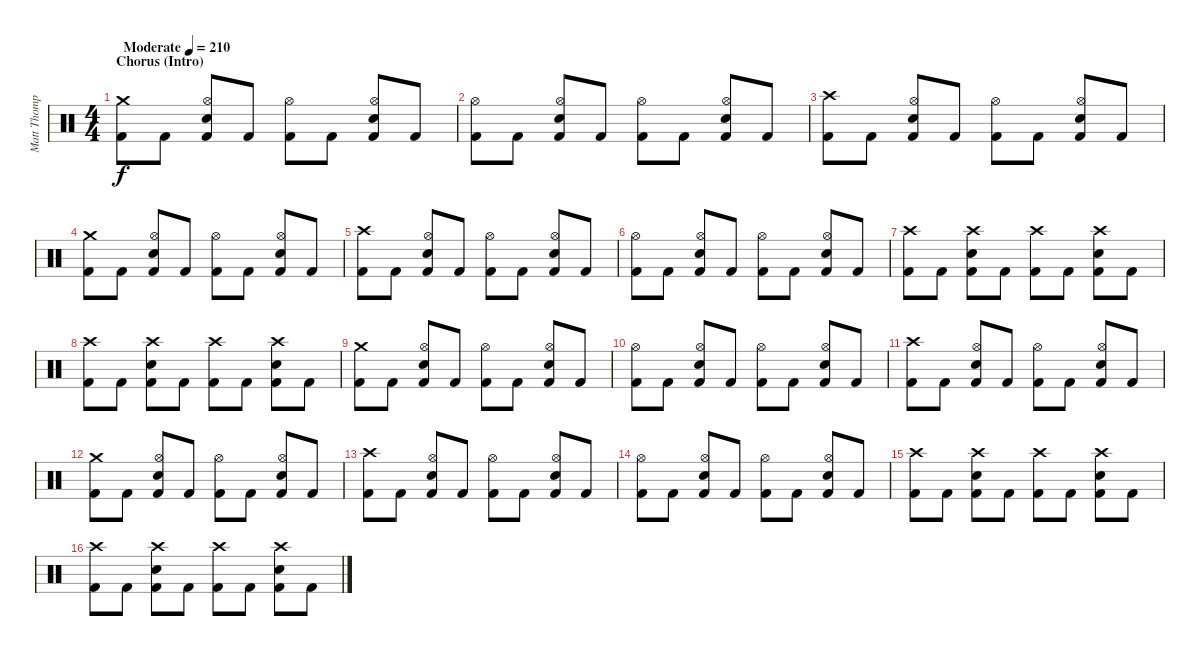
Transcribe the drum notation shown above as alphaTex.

\track ("Matt Thompson" "Matt Thomp") {instrument percussion}
\staff {score}
\articulation defaults
\ts (4 4)
\section ("" "Chorus (Intro)")
\tempo (210 "Moderate")
\clef neutral
\ks c
("Crash medium (hit)" "Kick (hit) 2").8{dy f} "Kick (hit) 2".8 ("Hi-Hat (open)" "Electric Snare (hit)" "Kick (hit) 2").8 "Kick (hit) 2".8 ("Hi-Hat (open)" "Kick (hit) 2").8 "Kick (hit) 2".8 ("Hi-Hat (open)" "Electric Snare (hit)" "Kick (hit) 2").8 "Kick (hit) 2".8 |
("Hi-Hat (open)" "Kick (hit) 2").8 "Kick (hit) 2".8 ("Hi-Hat (open)" "Electric Snare (hit)" "Kick (hit) 2").8 "Kick (hit) 2".8 ("Hi-Hat (open)" "Kick (hit) 2").8 "Kick (hit) 2".8 ("Hi-Hat (open)" "Electric Snare (hit)" "Kick (hit) 2").8 "Kick (hit) 2".8 |
("Crash high (hit)" "Kick (hit) 2").8 "Kick (hit) 2".8 ("Hi-Hat (open)" "Electric Snare (hit)" "Kick (hit) 2").8 "Kick (hit) 2".8 ("Hi-Hat (open)" "Kick (hit) 2").8 "Kick (hit) 2".8 ("Hi-Hat (open)" "Electric Snare (hit)" "Kick (hit) 2").8 "Kick (hit) 2".8 |
("Crash medium (hit)" "Kick (hit) 2").8 "Kick (hit) 2".8 ("Hi-Hat (open)" "Electric Snare (hit)" "Kick (hit) 2").8 "Kick (hit) 2".8 ("Hi-Hat (open)" "Kick (hit) 2").8 "Kick (hit) 2".8 ("Hi-Hat (open)" "Electric Snare (hit)" "Kick (hit) 2").8 "Kick (hit) 2".8 |
("Crash high (hit)" "Kick (hit) 2").8 "Kick (hit) 2".8 ("Hi-Hat (open)" "Electric Snare (hit)" "Kick (hit) 2").8 "Kick (hit) 2".8 ("Hi-Hat (open)" "Kick (hit) 2").8 "Kick (hit) 2".8 ("Hi-Hat (open)" "Electric Snare (hit)" "Kick (hit) 2").8 "Kick (hit) 2".8 |
("Hi-Hat (open)" "Kick (hit) 2").8 "Kick (hit) 2".8 ("Hi-Hat (open)" "Electric Snare (hit)" "Kick (hit) 2").8 "Kick (hit) 2".8 ("Hi-Hat (open)" "Kick (hit) 2").8 "Kick (hit) 2".8 ("Hi-Hat (open)" "Electric Snare (hit)" "Kick (hit) 2").8 "Kick (hit) 2".8 |
("Crash high (hit)" "Kick (hit) 2").8 "Kick (hit) 2".8 ("Crash high (hit)" "Electric Snare (hit)" "Kick (hit) 2").8 "Kick (hit) 2".8 ("Crash high (hit)" "Kick (hit) 2").8 "Kick (hit) 2".8 ("Crash high (hit)" "Electric Snare (hit)" "Kick (hit) 2").8 "Kick (hit) 2".8 |
("Crash high (hit)" "Kick (hit) 2").8 "Kick (hit) 2".8 ("Crash high (hit)" "Electric Snare (hit)" "Kick (hit) 2").8 "Kick (hit) 2".8 ("Crash high (hit)" "Kick (hit) 2").8 "Kick (hit) 2".8 ("Crash high (hit)" "Electric Snare (hit)" "Kick (hit) 2").8 "Kick (hit) 2".8 |
("Crash medium (hit)" "Kick (hit) 2").8 "Kick (hit) 2".8 ("Hi-Hat (open)" "Electric Snare (hit)" "Kick (hit) 2").8 "Kick (hit) 2".8 ("Hi-Hat (open)" "Kick (hit) 2").8 "Kick (hit) 2".8 ("Hi-Hat (open)" "Electric Snare (hit)" "Kick (hit) 2").8 "Kick (hit) 2".8 |
("Hi-Hat (open)" "Kick (hit) 2").8 "Kick (hit) 2".8 ("Hi-Hat (open)" "Electric Snare (hit)" "Kick (hit) 2").8 "Kick (hit) 2".8 ("Hi-Hat (open)" "Kick (hit) 2").8 "Kick (hit) 2".8 ("Hi-Hat (open)" "Electric Snare (hit)" "Kick (hit) 2").8 "Kick (hit) 2".8 |
("Crash high (hit)" "Kick (hit) 2").8 "Kick (hit) 2".8 ("Hi-Hat (open)" "Electric Snare (hit)" "Kick (hit) 2").8 "Kick (hit) 2".8 ("Hi-Hat (open)" "Kick (hit) 2").8 "Kick (hit) 2".8 ("Hi-Hat (open)" "Electric Snare (hit)" "Kick (hit) 2").8 "Kick (hit) 2".8 |
("Crash medium (hit)" "Kick (hit) 2").8 "Kick (hit) 2".8 ("Hi-Hat (open)" "Electric Snare (hit)" "Kick (hit) 2").8 "Kick (hit) 2".8 ("Hi-Hat (open)" "Kick (hit) 2").8 "Kick (hit) 2".8 ("Hi-Hat (open)" "Electric Snare (hit)" "Kick (hit) 2").8 "Kick (hit) 2".8 |
("Crash high (hit)" "Kick (hit) 2").8 "Kick (hit) 2".8 ("Hi-Hat (open)" "Electric Snare (hit)" "Kick (hit) 2").8 "Kick (hit) 2".8 ("Hi-Hat (open)" "Kick (hit) 2").8 "Kick (hit) 2".8 ("Hi-Hat (open)" "Electric Snare (hit)" "Kick (hit) 2").8 "Kick (hit) 2".8 |
("Hi-Hat (open)" "Kick (hit) 2").8 "Kick (hit) 2".8 ("Hi-Hat (open)" "Electric Snare (hit)" "Kick (hit) 2").8 "Kick (hit) 2".8 ("Hi-Hat (open)" "Kick (hit) 2").8 "Kick (hit) 2".8 ("Hi-Hat (open)" "Electric Snare (hit)" "Kick (hit) 2").8 "Kick (hit) 2".8 |
("Crash high (hit)" "Kick (hit) 2").8 "Kick (hit) 2".8 ("Crash high (hit)" "Electric Snare (hit)" "Kick (hit) 2").8 "Kick (hit) 2".8 ("Crash high (hit)" "Kick (hit) 2").8 "Kick (hit) 2".8 ("Crash high (hit)" "Electric Snare (hit)" "Kick (hit) 2").8 "Kick (hit) 2".8 |
("Crash high (hit)" "Kick (hit) 2").8 "Kick (hit) 2".8 ("Crash high (hit)" "Electric Snare (hit)" "Kick (hit) 2").8 "Kick (hit) 2".8 ("Crash high (hit)" "Kick (hit) 2").8 "Kick (hit) 2".8 ("Crash high (hit)" "Electric Snare (hit)" "Kick (hit) 2").8 "Kick (hit) 2".8
